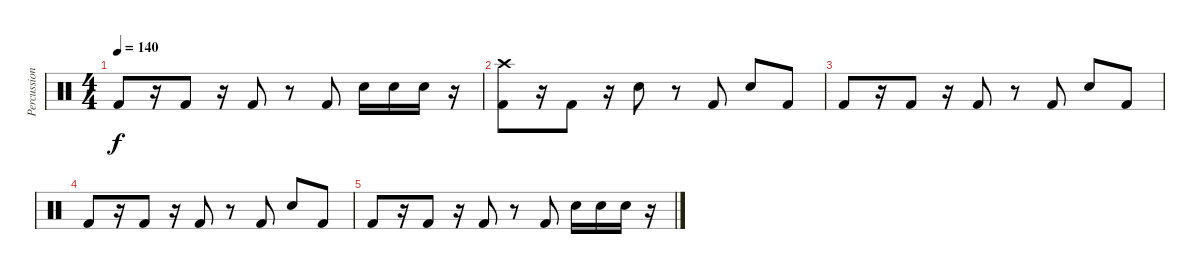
\track ("Percussion" "Percussion") {instrument percussion}
\staff {score}
\articulation defaults
\ts (4 4)
\tempo 140
\clef neutral
\ks c "Kick (hit) 2".8{dy f volume 12}
r.16 "Kick (hit) 2".8 r.16 "Kick (hit) 2".8{volume 11} r.8 "Kick (hit) 2".8 "Electric Snare (hit)".16 "Electric Snare (hit)".16 "Electric Snare (hit)".16 r.16 |
("Crash high (hit)" "Kick (hit) 2").8{volume 10} r.16 "Kick (hit) 2".8 r.16 "Electric Snare (hit)".8{volume 9} r.8 "Kick (hit) 2".8 "Electric Snare (hit)".8 "Kick (hit) 2".8 |
"Kick (hit) 2".8{volume 8} r.16 "Kick (hit) 2".8 r.16 "Kick (hit) 2".8{volume 7} r.8 "Kick (hit) 2".8 "Electric Snare (hit)".8 "Kick (hit) 2".8 |
"Kick (hit) 2".8{volume 5} r.16 "Kick (hit) 2".8 r.16 "Kick (hit) 2".8{volume 4} r.8 "Kick (hit) 2".8 "Electric Snare (hit)".8 "Kick (hit) 2".8 |
"Kick (hit) 2".8{volume 2} r.16 "Kick (hit) 2".8 r.16 "Kick (hit) 2".8{volume 1} r.8 "Kick (hit) 2".8 "Electric Snare (hit)".16 "Electric Snare (hit)".16 "Electric Snare (hit)".16 r.16
